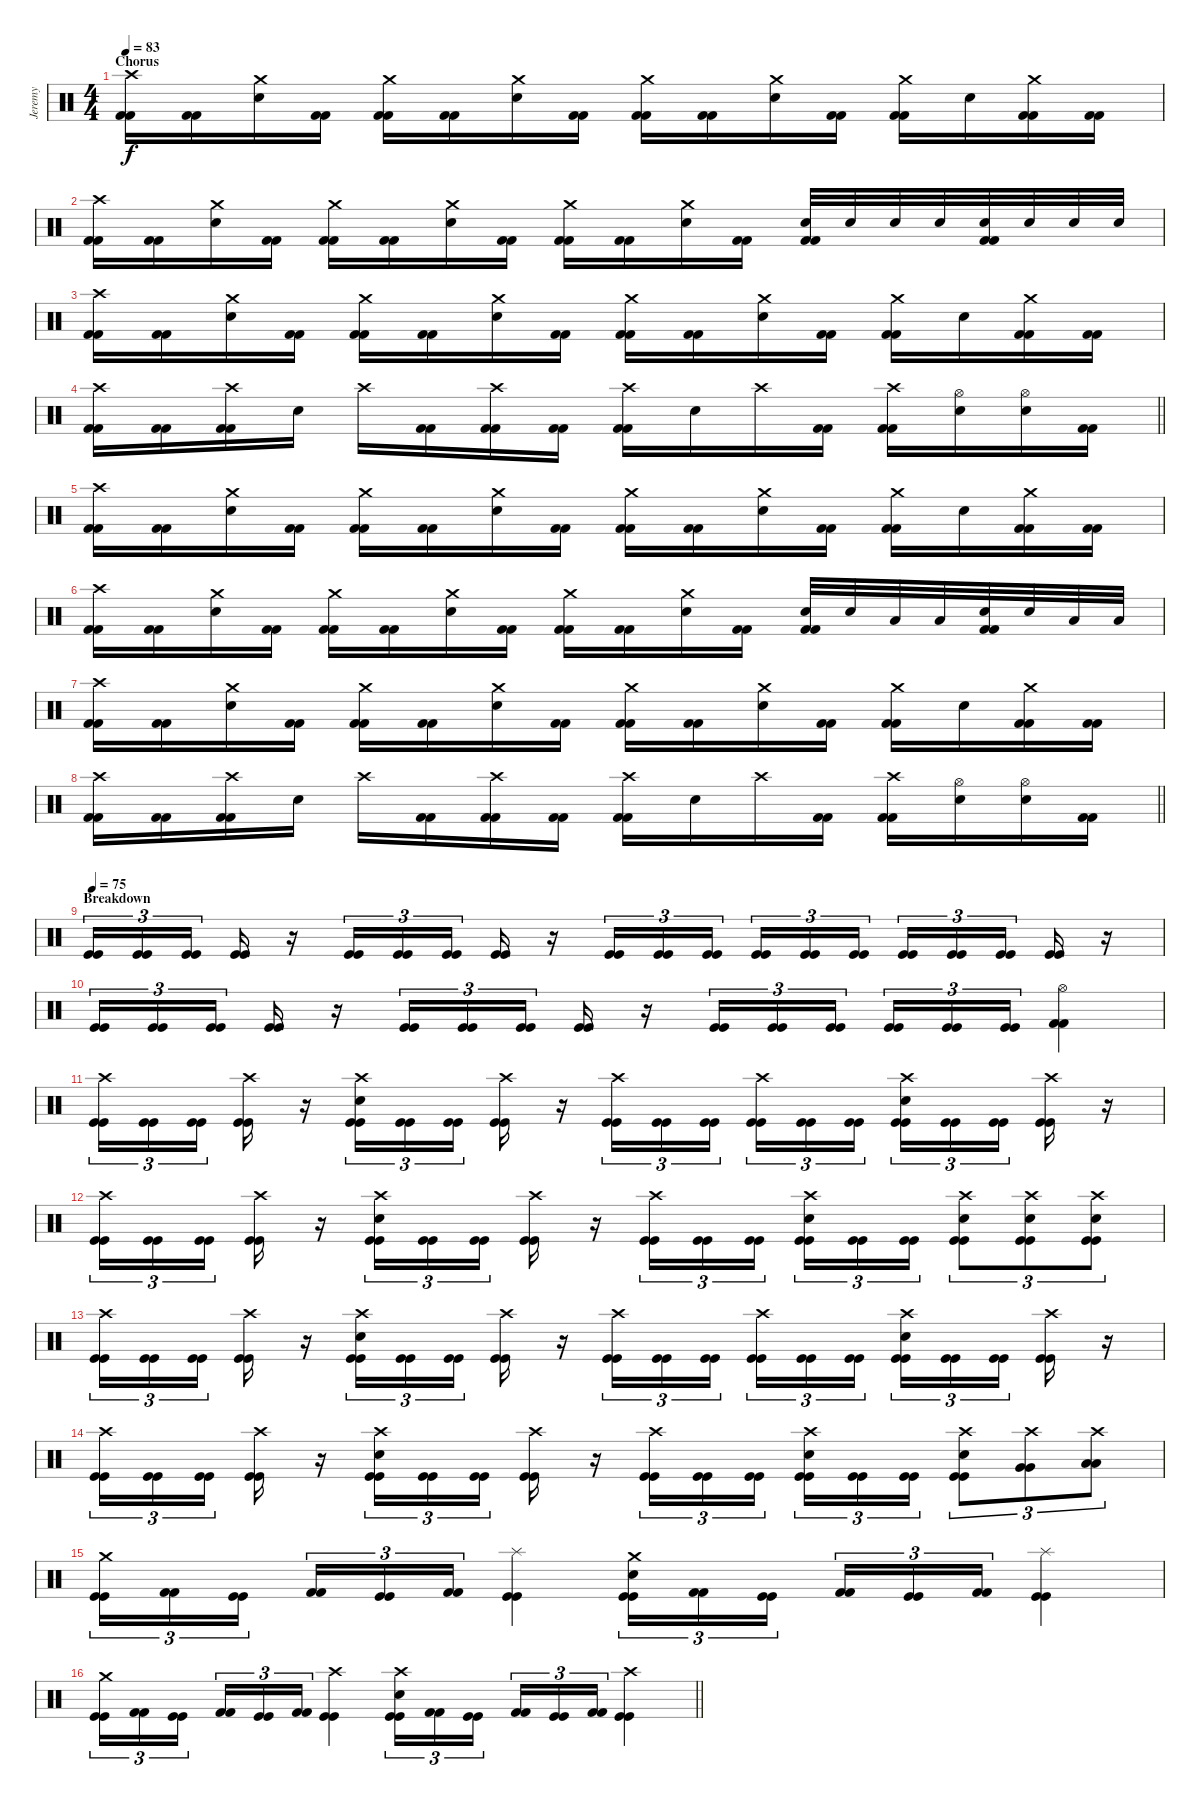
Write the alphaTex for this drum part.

\track ("Jeremy" "Jeremy") {instrument percussion}
\staff {score}
\articulation defaults
\ts (4 4)
\section ("" "Chorus")
\tempo 83
\clef neutral
\ks c
("Crash high (hit)" "Kick (hit) 2" "Kick (hit) 2").16{dy f} ("Kick (hit) 2" "Kick (hit) 2").16 ("Crash medium (hit)" "Electric Snare (hit)").16 ("Kick (hit) 2" "Kick (hit) 2").16 ("Crash medium (hit)" "Kick (hit) 2" "Kick (hit) 2").16 ("Kick (hit) 2" "Kick (hit) 2").16 ("Crash medium (hit)" "Electric Snare (hit)").16 ("Kick (hit) 2" "Kick (hit) 2").16 ("Crash medium (hit)" "Kick (hit) 2" "Kick (hit) 2").16 ("Kick (hit) 2" "Kick (hit) 2").16 ("Crash medium (hit)" "Electric Snare (hit)").16 ("Kick (hit) 2" "Kick (hit) 2").16 ("Crash medium (hit)" "Kick (hit) 2" "Kick (hit) 2").16 "Electric Snare (hit)".16 ("Crash medium (hit)" "Kick (hit) 2" "Kick (hit) 2").16 ("Kick (hit) 2" "Kick (hit) 2").16 |
("Crash high (hit)" "Kick (hit) 2" "Kick (hit) 2").16 ("Kick (hit) 2" "Kick (hit) 2").16 ("Crash medium (hit)" "Electric Snare (hit)").16 ("Kick (hit) 2" "Kick (hit) 2").16 ("Crash medium (hit)" "Kick (hit) 2" "Kick (hit) 2").16 ("Kick (hit) 2" "Kick (hit) 2").16 ("Crash medium (hit)" "Electric Snare (hit)").16 ("Kick (hit) 2" "Kick (hit) 2").16 ("Crash medium (hit)" "Kick (hit) 2" "Kick (hit) 2").16 ("Kick (hit) 2" "Kick (hit) 2").16 ("Crash medium (hit)" "Electric Snare (hit)").16 ("Kick (hit) 2" "Kick (hit) 2").16 ("Electric Snare (hit)" "Kick (hit) 2" "Kick (hit) 2").32 "Electric Snare (hit)".32 "Electric Snare (hit)".32 "Electric Snare (hit)".32 ("Electric Snare (hit)" "Kick (hit) 2" "Kick (hit) 2").32 "Electric Snare (hit)".32 "Electric Snare (hit)".32 "Electric Snare (hit)".32 |
("Crash high (hit)" "Kick (hit) 2" "Kick (hit) 2").16 ("Kick (hit) 2" "Kick (hit) 2").16 ("Crash medium (hit)" "Electric Snare (hit)").16 ("Kick (hit) 2" "Kick (hit) 2").16 ("Crash medium (hit)" "Kick (hit) 2" "Kick (hit) 2").16 ("Kick (hit) 2" "Kick (hit) 2").16 ("Crash medium (hit)" "Electric Snare (hit)").16 ("Kick (hit) 2" "Kick (hit) 2").16 ("Crash medium (hit)" "Kick (hit) 2" "Kick (hit) 2").16 ("Kick (hit) 2" "Kick (hit) 2").16 ("Crash medium (hit)" "Electric Snare (hit)").16 ("Kick (hit) 2" "Kick (hit) 2").16 ("Crash medium (hit)" "Kick (hit) 2" "Kick (hit) 2").16 "Electric Snare (hit)".16 ("Crash medium (hit)" "Kick (hit) 2" "Kick (hit) 2").16 ("Kick (hit) 2" "Kick (hit) 2").16 |
\barLineRight lightlight
("Crash high (hit)" "Kick (hit) 2" "Kick (hit) 2").16 ("Kick (hit) 2" "Kick (hit) 2").16 ("Crash high (hit)" "Kick (hit) 2" "Kick (hit) 2").16 "Electric Snare (hit)".16 "Crash high (hit)".16 ("Kick (hit) 2" "Kick (hit) 2").16 ("Crash high (hit)" "Kick (hit) 2" "Kick (hit) 2").16 ("Kick (hit) 2" "Kick (hit) 2").16 ("Crash high (hit)" "Kick (hit) 2" "Kick (hit) 2").16 "Electric Snare (hit)".16 "Crash high (hit)".16 ("Kick (hit) 2" "Kick (hit) 2").16 ("Crash high (hit)" "Kick (hit) 2" "Kick (hit) 2").16 ("Hi-Hat (open)" "Electric Snare (hit)").16 ("Hi-Hat (open)" "Electric Snare (hit)").16 ("Kick (hit) 2" "Kick (hit) 2").16 |
("Crash high (hit)" "Kick (hit) 2" "Kick (hit) 2").16 ("Kick (hit) 2" "Kick (hit) 2").16 ("Crash medium (hit)" "Electric Snare (hit)").16 ("Kick (hit) 2" "Kick (hit) 2").16 ("Crash medium (hit)" "Kick (hit) 2" "Kick (hit) 2").16 ("Kick (hit) 2" "Kick (hit) 2").16 ("Crash medium (hit)" "Electric Snare (hit)").16 ("Kick (hit) 2" "Kick (hit) 2").16 ("Crash medium (hit)" "Kick (hit) 2" "Kick (hit) 2").16 ("Kick (hit) 2" "Kick (hit) 2").16 ("Crash medium (hit)" "Electric Snare (hit)").16 ("Kick (hit) 2" "Kick (hit) 2").16 ("Crash medium (hit)" "Kick (hit) 2" "Kick (hit) 2").16 "Electric Snare (hit)".16 ("Crash medium (hit)" "Kick (hit) 2" "Kick (hit) 2").16 ("Kick (hit) 2" "Kick (hit) 2").16 |
("Crash high (hit)" "Kick (hit) 2" "Kick (hit) 2").16 ("Kick (hit) 2" "Kick (hit) 2").16 ("Crash medium (hit)" "Electric Snare (hit)").16 ("Kick (hit) 2" "Kick (hit) 2").16 ("Crash medium (hit)" "Kick (hit) 2" "Kick (hit) 2").16 ("Kick (hit) 2" "Kick (hit) 2").16 ("Crash medium (hit)" "Electric Snare (hit)").16 ("Kick (hit) 2" "Kick (hit) 2").16 ("Crash medium (hit)" "Kick (hit) 2" "Kick (hit) 2").16 ("Kick (hit) 2" "Kick (hit) 2").16 ("Crash medium (hit)" "Electric Snare (hit)").16 ("Kick (hit) 2" "Kick (hit) 2").16 ("Electric Snare (hit)" "Kick (hit) 2" "Kick (hit) 2").32 "Electric Snare (hit)".32 "Low Tom (hit)".32 "Low Tom (hit)".32 ("Electric Snare (hit)" "Kick (hit) 2" "Kick (hit) 2").32 "Electric Snare (hit)".32 "Low Tom (hit)".32 "Low Tom (hit)".32 |
("Crash high (hit)" "Kick (hit) 2" "Kick (hit) 2").16 ("Kick (hit) 2" "Kick (hit) 2").16 ("Crash medium (hit)" "Electric Snare (hit)").16 ("Kick (hit) 2" "Kick (hit) 2").16 ("Crash medium (hit)" "Kick (hit) 2" "Kick (hit) 2").16 ("Kick (hit) 2" "Kick (hit) 2").16 ("Crash medium (hit)" "Electric Snare (hit)").16 ("Kick (hit) 2" "Kick (hit) 2").16 ("Crash medium (hit)" "Kick (hit) 2" "Kick (hit) 2").16 ("Kick (hit) 2" "Kick (hit) 2").16 ("Crash medium (hit)" "Electric Snare (hit)").16 ("Kick (hit) 2" "Kick (hit) 2").16 ("Crash medium (hit)" "Kick (hit) 2" "Kick (hit) 2").16 "Electric Snare (hit)".16 ("Crash medium (hit)" "Kick (hit) 2" "Kick (hit) 2").16 ("Kick (hit) 2" "Kick (hit) 2").16 |
\barLineRight lightlight
("Crash high (hit)" "Kick (hit) 2" "Kick (hit) 2").16 ("Kick (hit) 2" "Kick (hit) 2").16 ("Crash high (hit)" "Kick (hit) 2" "Kick (hit) 2").16 "Electric Snare (hit)".16 "Crash high (hit)".16 ("Kick (hit) 2" "Kick (hit) 2").16 ("Crash high (hit)" "Kick (hit) 2" "Kick (hit) 2").16 ("Kick (hit) 2" "Kick (hit) 2").16 ("Crash high (hit)" "Kick (hit) 2" "Kick (hit) 2").16 "Electric Snare (hit)".16 "Crash high (hit)".16 ("Kick (hit) 2" "Kick (hit) 2").16 ("Crash high (hit)" "Kick (hit) 2" "Kick (hit) 2").16 ("Hi-Hat (open)" "Electric Snare (hit)").16 ("Hi-Hat (open)" "Electric Snare (hit)").16 ("Kick (hit) 2" "Kick (hit) 2").16 |
\section ("" "Breakdown")
\tempo 75
("Kick (hit)" "Kick (hit)").16{tu (3 2)} ("Kick (hit)" "Kick (hit)").16{tu (3 2)} ("Kick (hit)" "Kick (hit)").16{tu (3 2) beam splitsecondary} ("Kick (hit)" "Kick (hit)").16 r.16 ("Kick (hit)" "Kick (hit)").16{tu (3 2)} ("Kick (hit)" "Kick (hit)").16{tu (3 2)} ("Kick (hit)" "Kick (hit)").16{tu (3 2) beam splitsecondary} ("Kick (hit)" "Kick (hit)").16 r.16 ("Kick (hit)" "Kick (hit)").16{tu (3 2)} ("Kick (hit)" "Kick (hit)").16{tu (3 2)} ("Kick (hit)" "Kick (hit)").16{tu (3 2) beam splitsecondary} ("Kick (hit)" "Kick (hit)").16{tu (3 2)} ("Kick (hit)" "Kick (hit)").16{tu (3 2)} ("Kick (hit)" "Kick (hit)").16{tu (3 2)} ("Kick (hit)" "Kick (hit)").16{tu (3 2)} ("Kick (hit)" "Kick (hit)").16{tu (3 2)} ("Kick (hit)" "Kick (hit)").16{tu (3 2) beam splitsecondary} ("Kick (hit)" "Kick (hit)").16 r.16 |
("Kick (hit)" "Kick (hit)").16{tu (3 2)} ("Kick (hit)" "Kick (hit)").16{tu (3 2)} ("Kick (hit)" "Kick (hit)").16{tu (3 2) beam splitsecondary} ("Kick (hit)" "Kick (hit)").16 r.16 ("Kick (hit)" "Kick (hit)").16{tu (3 2)} ("Kick (hit)" "Kick (hit)").16{tu (3 2)} ("Kick (hit)" "Kick (hit)").16{tu (3 2) beam splitsecondary} ("Kick (hit)" "Kick (hit)").16 r.16 ("Kick (hit)" "Kick (hit)").16{tu (3 2)} ("Kick (hit)" "Kick (hit)").16{tu (3 2)} ("Kick (hit)" "Kick (hit)").16{tu (3 2) beam splitsecondary} ("Kick (hit)" "Kick (hit)").16{tu (3 2)} ("Kick (hit)" "Kick (hit)").16{tu (3 2)} ("Kick (hit)" "Kick (hit)").16{tu (3 2)} ("Hi-Hat (open)" "Kick (hit) 2" "Kick (hit) 2").4 |
("Crash high (hit)" "Kick (hit)" "Kick (hit)").16{tu (3 2)} ("Kick (hit)" "Kick (hit)").16{tu (3 2)} ("Kick (hit)" "Kick (hit)").16{tu (3 2) beam splitsecondary} ("Crash high (hit)" "Kick (hit)" "Kick (hit)").16 r.16 ("Crash high (hit)" "Electric Snare (hit)" "Kick (hit)" "Kick (hit)").16{tu (3 2)} ("Kick (hit)" "Kick (hit)").16{tu (3 2)} ("Kick (hit)" "Kick (hit)").16{tu (3 2) beam splitsecondary} ("Crash high (hit)" "Kick (hit)" "Kick (hit)").16 r.16 ("Crash high (hit)" "Kick (hit)" "Kick (hit)").16{tu (3 2)} ("Kick (hit)" "Kick (hit)").16{tu (3 2)} ("Kick (hit)" "Kick (hit)").16{tu (3 2) beam splitsecondary} ("Crash high (hit)" "Kick (hit)" "Kick (hit)").16{tu (3 2)} ("Kick (hit)" "Kick (hit)").16{tu (3 2)} ("Kick (hit)" "Kick (hit)").16{tu (3 2)} ("Crash high (hit)" "Electric Snare (hit)" "Kick (hit)" "Kick (hit)").16{tu (3 2)} ("Kick (hit)" "Kick (hit)").16{tu (3 2)} ("Kick (hit)" "Kick (hit)").16{tu (3 2) beam splitsecondary} ("Crash high (hit)" "Kick (hit)" "Kick (hit)").16 r.16 |
("Crash high (hit)" "Kick (hit)" "Kick (hit)").16{tu (3 2)} ("Kick (hit)" "Kick (hit)").16{tu (3 2)} ("Kick (hit)" "Kick (hit)").16{tu (3 2) beam splitsecondary} ("Crash high (hit)" "Kick (hit)" "Kick (hit)").16 r.16 ("Crash high (hit)" "Electric Snare (hit)" "Kick (hit)" "Kick (hit)").16{tu (3 2)} ("Kick (hit)" "Kick (hit)").16{tu (3 2)} ("Kick (hit)" "Kick (hit)").16{tu (3 2) beam splitsecondary} ("Crash high (hit)" "Kick (hit)" "Kick (hit)").16 r.16 ("Crash high (hit)" "Kick (hit)" "Kick (hit)").16{tu (3 2)} ("Kick (hit)" "Kick (hit)").16{tu (3 2)} ("Kick (hit)" "Kick (hit)").16{tu (3 2) beam splitsecondary} ("Crash high (hit)" "Electric Snare (hit)" "Kick (hit)" "Kick (hit)").16{tu (3 2)} ("Kick (hit)" "Kick (hit)").16{tu (3 2)} ("Kick (hit)" "Kick (hit)").16{tu (3 2)} ("Crash high (hit)" "Electric Snare (hit)" "Kick (hit)" "Kick (hit)").8{tu (3 2)} ("Crash high (hit)" "Electric Snare (hit)" "Kick (hit)" "Kick (hit)").8{tu (3 2)} ("Crash high (hit)" "Electric Snare (hit)" "Kick (hit)" "Kick (hit)").8{tu (3 2)} |
("Crash high (hit)" "Kick (hit)" "Kick (hit)").16{tu (3 2)} ("Kick (hit)" "Kick (hit)").16{tu (3 2)} ("Kick (hit)" "Kick (hit)").16{tu (3 2) beam splitsecondary} ("Crash high (hit)" "Kick (hit)" "Kick (hit)").16 r.16 ("Crash high (hit)" "Electric Snare (hit)" "Kick (hit)" "Kick (hit)").16{tu (3 2)} ("Kick (hit)" "Kick (hit)").16{tu (3 2)} ("Kick (hit)" "Kick (hit)").16{tu (3 2) beam splitsecondary} ("Crash high (hit)" "Kick (hit)" "Kick (hit)").16 r.16 ("Crash high (hit)" "Kick (hit)" "Kick (hit)").16{tu (3 2)} ("Kick (hit)" "Kick (hit)").16{tu (3 2)} ("Kick (hit)" "Kick (hit)").16{tu (3 2) beam splitsecondary} ("Crash high (hit)" "Kick (hit)" "Kick (hit)").16{tu (3 2)} ("Kick (hit)" "Kick (hit)").16{tu (3 2)} ("Kick (hit)" "Kick (hit)").16{tu (3 2)} ("Crash high (hit)" "Electric Snare (hit)" "Kick (hit)" "Kick (hit)").16{tu (3 2)} ("Kick (hit)" "Kick (hit)").16{tu (3 2)} ("Kick (hit)" "Kick (hit)").16{tu (3 2) beam splitsecondary} ("Crash high (hit)" "Kick (hit)" "Kick (hit)").16 r.16 |
("Crash high (hit)" "Kick (hit)" "Kick (hit)").16{tu (3 2)} ("Kick (hit)" "Kick (hit)").16{tu (3 2)} ("Kick (hit)" "Kick (hit)").16{tu (3 2) beam splitsecondary} ("Crash high (hit)" "Kick (hit)" "Kick (hit)").16 r.16 ("Crash high (hit)" "Electric Snare (hit)" "Kick (hit)" "Kick (hit)").16{tu (3 2)} ("Kick (hit)" "Kick (hit)").16{tu (3 2)} ("Kick (hit)" "Kick (hit)").16{tu (3 2) beam splitsecondary} ("Crash high (hit)" "Kick (hit)" "Kick (hit)").16 r.16 ("Crash high (hit)" "Kick (hit)" "Kick (hit)").16{tu (3 2)} ("Kick (hit)" "Kick (hit)").16{tu (3 2)} ("Kick (hit)" "Kick (hit)").16{tu (3 2) beam splitsecondary} ("Crash high (hit)" "Electric Snare (hit)" "Kick (hit)" "Kick (hit)").16{tu (3 2)} ("Kick (hit)" "Kick (hit)").16{tu (3 2)} ("Kick (hit)" "Kick (hit)").16{tu (3 2)} ("Crash high (hit)" "Electric Snare (hit)" "Kick (hit)" "Kick (hit)").8{tu (3 2)} ("Crash high (hit)" "Very Low Tom (hit)" "Very Low Tom (hit)").8{tu (3 2)} ("Crash high (hit)" "Low Floor Tom (hit)" "Low Floor Tom (hit)").8{tu (3 2)} |
("Crash medium (hit)" "Kick (hit)" "Kick (hit)").16{tu (3 2)} ("Kick (hit) 2" "Kick (hit) 2").16{tu (3 2)} ("Kick (hit)" "Kick (hit)").16{tu (3 2) beam splitsecondary} ("Kick (hit) 2" "Kick (hit) 2").16{tu (3 2)} ("Kick (hit)" "Kick (hit)").16{tu (3 2)} ("Kick (hit) 2" "Kick (hit) 2").16{tu (3 2)} ("Splash (hit)" "Kick (hit)" "Kick (hit)").4 ("Crash medium (hit)" "Electric Snare (hit)" "Kick (hit)" "Kick (hit)").16{tu (3 2)} ("Kick (hit) 2" "Kick (hit) 2").16{tu (3 2)} ("Kick (hit)" "Kick (hit)").16{tu (3 2) beam splitsecondary} ("Kick (hit) 2" "Kick (hit) 2").16{tu (3 2)} ("Kick (hit)" "Kick (hit)").16{tu (3 2)} ("Kick (hit) 2" "Kick (hit) 2").16{tu (3 2)} ("Splash (hit)" "Kick (hit)" "Kick (hit)").4 |
\barLineRight lightlight
("Crash medium (hit)" "Kick (hit)" "Kick (hit)").16{tu (3 2)} ("Kick (hit) 2" "Kick (hit) 2").16{tu (3 2)} ("Kick (hit)" "Kick (hit)").16{tu (3 2) beam splitsecondary} ("Kick (hit) 2" "Kick (hit) 2").16{tu (3 2)} ("Kick (hit)" "Kick (hit)").16{tu (3 2)} ("Kick (hit) 2" "Kick (hit) 2").16{tu (3 2)} ("Crash high (hit)" "Kick (hit)" "Kick (hit)").4 ("Crash high (hit)" "Electric Snare (hit)" "Kick (hit)" "Kick (hit)").16{tu (3 2)} ("Kick (hit) 2" "Kick (hit) 2").16{tu (3 2)} ("Kick (hit)" "Kick (hit)").16{tu (3 2) beam splitsecondary} ("Kick (hit) 2" "Kick (hit) 2").16{tu (3 2)} ("Kick (hit)" "Kick (hit)").16{tu (3 2)} ("Kick (hit) 2" "Kick (hit) 2").16{tu (3 2)} ("Crash high (hit)" "Kick (hit)" "Kick (hit)").4
